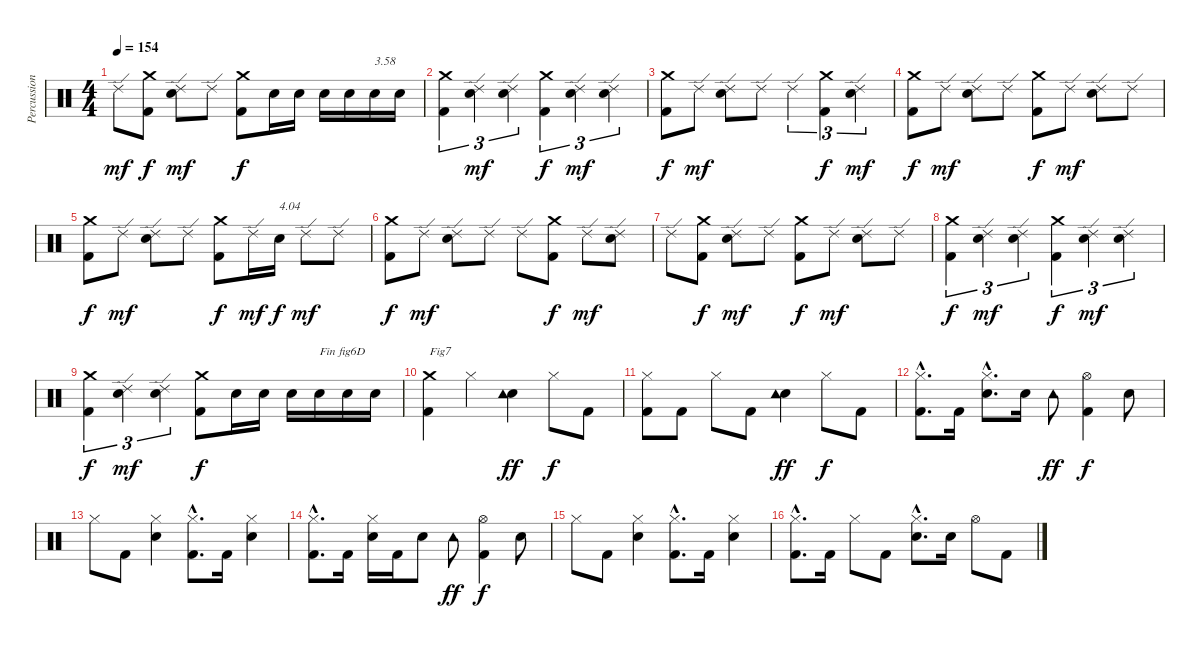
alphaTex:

\track ("Percussions" "Percussion") {instrument percussion}
\staff {score}
\articulation defaults
\ts (4 4)
\tempo 154
\clef neutral
\ks c "Ride (edge) 2".8{dy mf}
("Kick (hit) 2" "Crash medium (hit)").8{dy f} ("Electric Snare (hit)" "Ride (edge) 2").8{dy mf} "Ride (edge) 2".8 ("Kick (hit) 2" "Crash medium (hit)").8{dy f} "Electric Snare (hit)".16 "Electric Snare (hit)".16 "Electric Snare (hit)".16 "Electric Snare (hit)".16 "Electric Snare (hit)".16{txt "3.58"} "Electric Snare (hit)".16 |
("Kick (hit) 2" "Crash medium (hit)").4{tu (3 2)} ("Electric Snare (hit)" "Ride (edge) 2").4{tu (3 2) dy mf} ("Electric Snare (hit)" "Ride (edge) 2").4{tu (3 2)} ("Kick (hit) 2" "Crash medium (hit)").4{tu (3 2) dy f} ("Electric Snare (hit)" "Ride (edge) 2").4{tu (3 2) dy mf} ("Electric Snare (hit)" "Ride (edge) 2").4{tu (3 2)} |
("Kick (hit) 2" "Crash medium (hit)").8{dy f} "Ride (edge) 2".8{dy mf} ("Electric Snare (hit)" "Ride (edge) 2").8 "Ride (edge) 2".8 "Ride (edge) 2".4{tu (3 2)} ("Kick (hit) 2" "Crash medium (hit)").4{tu (3 2) dy f} ("Electric Snare (hit)" "Ride (edge) 2").4{tu (3 2) dy mf} |
("Kick (hit) 2" "Crash medium (hit)").8{dy f} "Ride (edge) 2".8{dy mf} ("Electric Snare (hit)" "Ride (edge) 2").8 "Ride (edge) 2".8 ("Kick (hit) 2" "Crash medium (hit)").8{dy f} "Ride (edge) 2".8{dy mf} ("Electric Snare (hit)" "Ride (edge) 2").8 "Ride (edge) 2".8 |
("Kick (hit) 2" "Crash medium (hit)").8{dy f} "Ride (edge) 2".8{dy mf} ("Electric Snare (hit)" "Ride (edge) 2").8 "Ride (edge) 2".8 ("Kick (hit) 2" "Crash medium (hit)").8{dy f} "Ride (edge) 2".16{dy mf} "Electric Snare (hit)".16{txt "4.04" dy f} "Ride (edge) 2".8{dy mf} "Ride (edge) 2".8 |
("Kick (hit) 2" "Crash medium (hit)").8{dy f} "Ride (edge) 2".8{dy mf} ("Electric Snare (hit)" "Ride (edge) 2").8 "Ride (edge) 2".8 "Ride (edge) 2".8 ("Kick (hit) 2" "Crash medium (hit)").8{dy f} "Ride (edge) 2".8{dy mf} ("Electric Snare (hit)" "Ride (edge) 2").8 |
"Ride (edge) 2".8 ("Kick (hit) 2" "Crash medium (hit)").8{dy f} ("Electric Snare (hit)" "Ride (edge) 2").8{dy mf} "Ride (edge) 2".8 ("Kick (hit) 2" "Crash medium (hit)").8{dy f} "Ride (edge) 2".8{dy mf} ("Electric Snare (hit)" "Ride (edge) 2").8 "Ride (edge) 2".8 |
("Kick (hit) 2" "Crash medium (hit)").4{tu (3 2) dy f} ("Electric Snare (hit)" "Ride (edge) 2").4{tu (3 2) dy mf} ("Electric Snare (hit)" "Ride (edge) 2").4{tu (3 2)} ("Kick (hit) 2" "Crash medium (hit)").4{tu (3 2) dy f} ("Electric Snare (hit)" "Ride (edge) 2").4{tu (3 2) dy mf} ("Electric Snare (hit)" "Ride (edge) 2").4{tu (3 2)} |
("Kick (hit) 2" "Crash medium (hit)").4{tu (3 2) dy f} ("Electric Snare (hit)" "Ride (edge) 2").4{tu (3 2) dy mf} ("Electric Snare (hit)" "Ride (edge) 2").4{tu (3 2)} ("Kick (hit) 2" "Crash medium (hit)").8{dy f} "Electric Snare (hit)".16 "Electric Snare (hit)".16 "Electric Snare (hit)".16 "Electric Snare (hit)".16{txt "Fin fig6D"} "Electric Snare (hit)".16 "Electric Snare (hit)".16 |
("Kick (hit) 2" "Crash medium (hit)").4{txt "Fig7"} "Hi-Hat (closed)".4 ("Electric Snare (hit)" "Tambourine (hit)").4{dy ff} "Hi-Hat (closed)".8{dy f} "Kick (hit) 2".8 |
("Kick (hit) 2" "Hi-Hat (closed)").8 "Kick (hit) 2".8 "Hi-Hat (closed)".8 "Kick (hit) 2".8 ("Electric Snare (hit)" "Tambourine (hit)").4{dy ff} "Hi-Hat (closed)".8{dy f} "Kick (hit) 2".8 |
("Kick (hit) 2"{hac} "Hi-Hat (closed)"{hac}).8{d} "Kick (hit) 2".16 ("Electric Snare (hit)"{hac} "Hi-Hat (closed)"{hac}).8{d} "Electric Snare (hit)".16 "Tambourine (hit)".8{dy ff} ("Kick (hit) 2" "Hi-Hat (open)").4{dy f} "Electric Snare (hit)".8 |
"Hi-Hat (closed)".8 "Kick (hit) 2".8 ("Electric Snare (hit)" "Hi-Hat (closed)").4 ("Kick (hit) 2"{hac} "Hi-Hat (closed)"{hac}).8{d} "Kick (hit) 2".16 ("Electric Snare (hit)" "Hi-Hat (closed)").4 |
("Kick (hit) 2"{hac} "Hi-Hat (closed)"{hac}).8{d} "Kick (hit) 2".16 ("Electric Snare (hit)" "Hi-Hat (closed)").16 "Kick (hit) 2".16 "Electric Snare (hit)".8 "Tambourine (hit)".8{dy ff} ("Kick (hit) 2" "Hi-Hat (open)").4{dy f} "Electric Snare (hit)".8 |
"Hi-Hat (closed)".8 "Kick (hit) 2".8 ("Electric Snare (hit)" "Hi-Hat (closed)").4 ("Kick (hit) 2"{hac} "Hi-Hat (closed)"{hac}).8{d} "Kick (hit) 2".16 ("Electric Snare (hit)" "Hi-Hat (closed)").4 |
("Kick (hit) 2"{hac} "Hi-Hat (closed)"{hac}).8{d} "Kick (hit) 2".16 "Hi-Hat (closed)".8 "Kick (hit) 2".8 ("Electric Snare (hit)"{hac} "Hi-Hat (closed)"{hac}).8{d} "Electric Snare (hit)".16 "Hi-Hat (open)".8 "Kick (hit) 2".8
